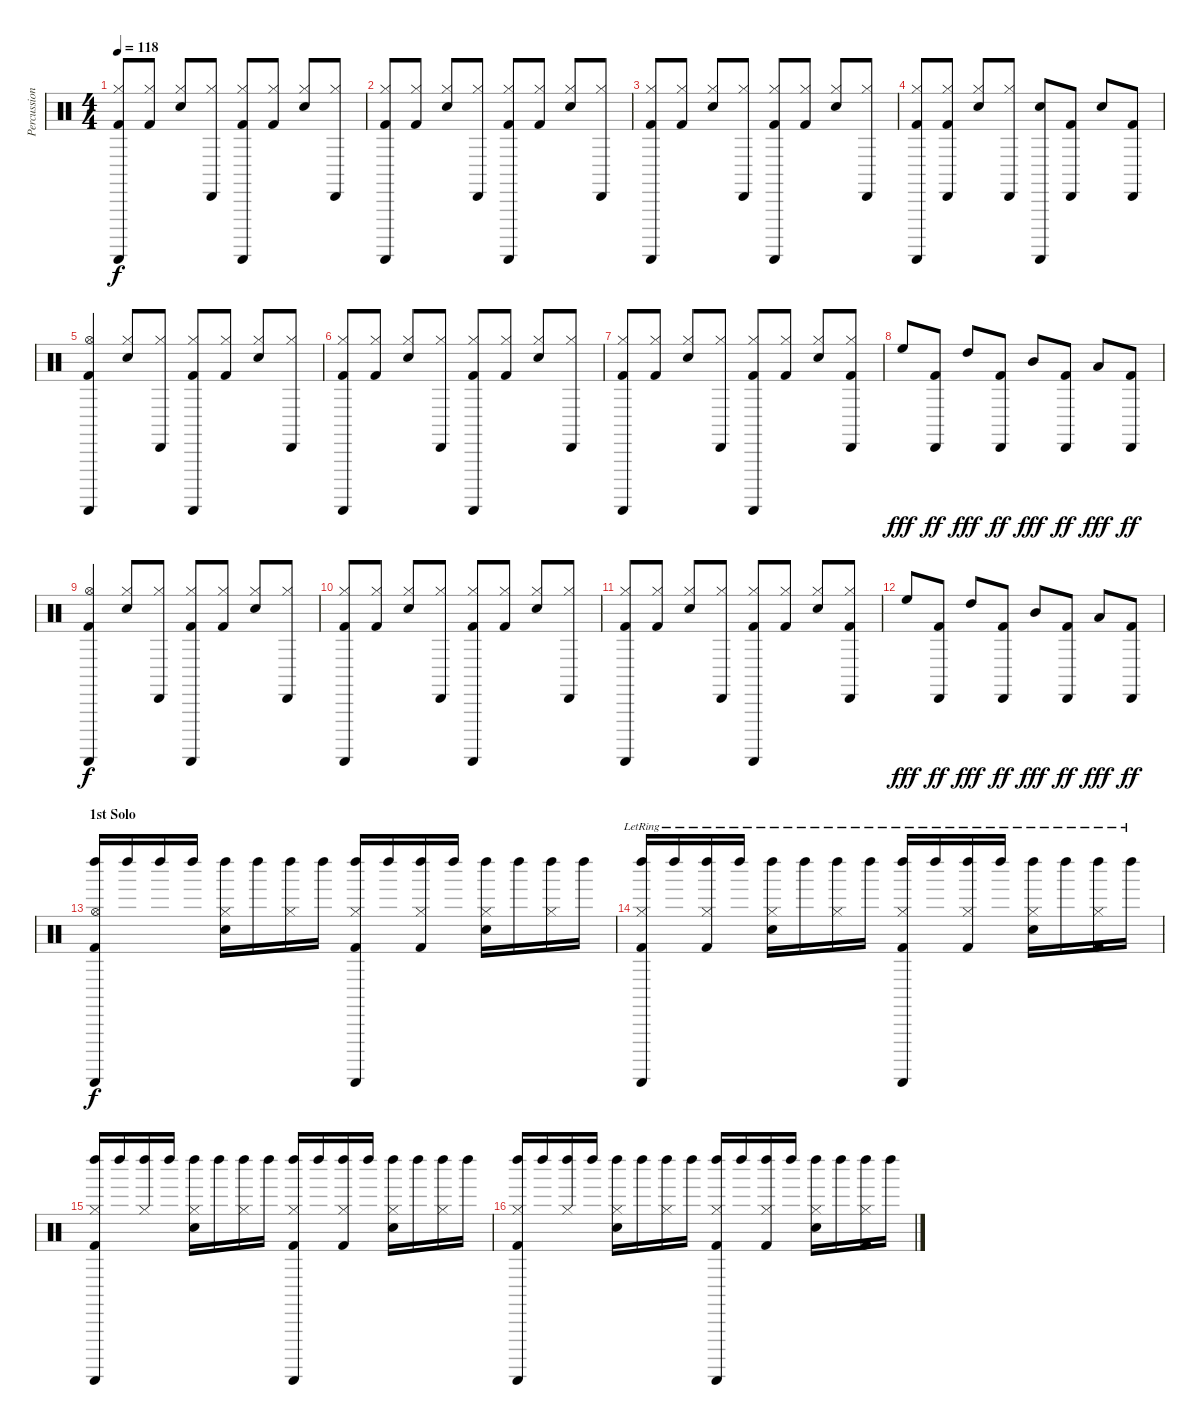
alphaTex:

\track ("Percussions" "Percussion") {instrument percussion}
\staff {score}
\articulation defaults
\ts (4 4)
\tempo 118
\clef neutral
\ks c
("Guiro (scrap-return)" "Hi-Hat (closed)" "Kick (hit) 2").8{dy f} ("Hi-Hat (closed)" "Kick (hit) 2").8 ("Hi-Hat (closed)" "Snare (hit) 2").8 ("Cabasa (hit)" "Hi-Hat (closed)").8 ("Guiro (scrap-return)" "Hi-Hat (closed)" "Kick (hit) 2").8 ("Hi-Hat (closed)" "Kick (hit) 2").8 ("Hi-Hat (closed)" "Snare (hit) 2").8 ("Cabasa (hit)" "Hi-Hat (closed)").8 |
("Guiro (scrap-return)" "Hi-Hat (closed)" "Kick (hit) 2").8 ("Hi-Hat (closed)" "Kick (hit) 2").8 ("Hi-Hat (closed)" "Snare (hit) 2").8 ("Cabasa (hit)" "Hi-Hat (closed)").8 ("Guiro (scrap-return)" "Hi-Hat (closed)" "Kick (hit) 2").8 ("Hi-Hat (closed)" "Kick (hit) 2").8 ("Hi-Hat (closed)" "Snare (hit) 2").8 ("Cabasa (hit)" "Hi-Hat (closed)").8 |
("Guiro (scrap-return)" "Hi-Hat (closed)" "Kick (hit) 2").8 ("Hi-Hat (closed)" "Kick (hit) 2").8 ("Hi-Hat (closed)" "Snare (hit) 2").8 ("Cabasa (hit)" "Hi-Hat (closed)").8 ("Guiro (scrap-return)" "Hi-Hat (closed)" "Kick (hit) 2").8 ("Hi-Hat (closed)" "Kick (hit) 2").8 ("Hi-Hat (closed)" "Snare (hit) 2").8 ("Cabasa (hit)" "Hi-Hat (closed)").8 |
("Guiro (scrap-return)" "Hi-Hat (closed)" "Kick (hit) 2").8 ("Cabasa (hit)" "Hi-Hat (closed)" "Kick (hit) 2").8 ("Hi-Hat (closed)" "Snare (hit) 2").8 ("Cabasa (hit)" "Hi-Hat (closed)").8 ("Guiro (scrap-return)" "Snare (hit) 2").8 ("Cabasa (hit)" "Kick (hit) 2").8 "Snare (hit) 2".8 ("Cabasa (hit)" "Kick (hit) 2").8 |
("Guiro (scrap-return)" "Hi-Hat (open)" "Kick (hit) 2").4 ("Hi-Hat (closed)" "Snare (hit) 2").8 ("Cabasa (hit)" "Hi-Hat (closed)").8 ("Guiro (scrap-return)" "Hi-Hat (closed)" "Kick (hit) 2").8 ("Hi-Hat (closed)" "Kick (hit) 2").8 ("Hi-Hat (closed)" "Snare (hit) 2").8 ("Cabasa (hit)" "Hi-Hat (closed)").8 |
("Guiro (scrap-return)" "Hi-Hat (closed)" "Kick (hit) 2").8 ("Hi-Hat (closed)" "Kick (hit) 2").8 ("Hi-Hat (closed)" "Snare (hit) 2").8 ("Cabasa (hit)" "Hi-Hat (closed)").8 ("Guiro (scrap-return)" "Hi-Hat (closed)" "Kick (hit) 2").8 ("Hi-Hat (closed)" "Kick (hit) 2").8 ("Hi-Hat (closed)" "Snare (hit) 2").8 ("Cabasa (hit)" "Hi-Hat (closed)").8 |
("Guiro (scrap-return)" "Hi-Hat (closed)" "Kick (hit) 2").8 ("Hi-Hat (closed)" "Kick (hit) 2").8 ("Hi-Hat (closed)" "Snare (hit) 2").8 ("Cabasa (hit)" "Hi-Hat (closed)").8 ("Guiro (scrap-return)" "Hi-Hat (closed)" "Kick (hit) 2").8 ("Hi-Hat (closed)" "Kick (hit) 2").8 ("Hi-Hat (closed)" "Snare (hit) 2").8 ("Cabasa (hit)" "Hi-Hat (closed)" "Kick (hit) 2").8 |
"High Floor Tom (hit)".8{dy fff} ("Cabasa (hit)" "Kick (hit) 2").8{dy ff} "High Tom (hit)".8{dy fff} ("Cabasa (hit)" "Kick (hit) 2").8{dy ff} "Mid Tom (hit)".8{dy fff} ("Cabasa (hit)" "Kick (hit) 2").8{dy ff} "Low Tom (hit)".8{dy fff} ("Cabasa (hit)" "Kick (hit) 2").8{dy ff} |
("Guiro (scrap-return)" "Hi-Hat (open)" "Kick (hit) 2").4{dy f} ("Hi-Hat (closed)" "Snare (hit) 2").8 ("Cabasa (hit)" "Hi-Hat (closed)").8 ("Guiro (scrap-return)" "Hi-Hat (closed)" "Kick (hit) 2").8 ("Hi-Hat (closed)" "Kick (hit) 2").8 ("Hi-Hat (closed)" "Snare (hit) 2").8 ("Cabasa (hit)" "Hi-Hat (closed)").8 |
("Guiro (scrap-return)" "Hi-Hat (closed)" "Kick (hit) 2").8 ("Hi-Hat (closed)" "Kick (hit) 2").8 ("Hi-Hat (closed)" "Snare (hit) 2").8 ("Cabasa (hit)" "Hi-Hat (closed)").8 ("Guiro (scrap-return)" "Hi-Hat (closed)" "Kick (hit) 2").8 ("Hi-Hat (closed)" "Kick (hit) 2").8 ("Hi-Hat (closed)" "Snare (hit) 2").8 ("Cabasa (hit)" "Hi-Hat (closed)").8 |
("Guiro (scrap-return)" "Hi-Hat (closed)" "Kick (hit) 2").8 ("Hi-Hat (closed)" "Kick (hit) 2").8 ("Hi-Hat (closed)" "Snare (hit) 2").8 ("Cabasa (hit)" "Hi-Hat (closed)").8 ("Guiro (scrap-return)" "Hi-Hat (closed)" "Kick (hit) 2").8 ("Hi-Hat (closed)" "Kick (hit) 2").8 ("Hi-Hat (closed)" "Snare (hit) 2").8 ("Cabasa (hit)" "Hi-Hat (closed)" "Kick (hit) 2").8 |
"High Floor Tom (hit)".8{dy fff} ("Cabasa (hit)" "Kick (hit) 2").8{dy ff} "High Tom (hit)".8{dy fff} ("Cabasa (hit)" "Kick (hit) 2").8{dy ff} "Mid Tom (hit)".8{dy fff} ("Cabasa (hit)" "Kick (hit) 2").8{dy ff} "Low Tom (hit)".8{dy fff} ("Cabasa (hit)" "Kick (hit) 2").8{dy ff} |
\section ("" "1st Solo")
("Guiro (scrap-return)" "Left Maraca (hit)" "Hi-Hat (open)" "Kick (hit) 2").16{dy f} "Left Maraca (hit)".16 "Left Maraca (hit)".16 "Left Maraca (hit)".16 ("Left Maraca (hit)" "Hi-Hat (closed)" "Snare (hit) 2").16 "Left Maraca (hit)".16 ("Left Maraca (hit)" "Hi-Hat (closed)").16 "Left Maraca (hit)".16 ("Guiro (scrap-return)" "Left Maraca (hit)" "Hi-Hat (closed)" "Kick (hit) 2").16 "Left Maraca (hit)".16 ("Left Maraca (hit)" "Hi-Hat (closed)" "Kick (hit) 2").16 "Left Maraca (hit)".16 ("Left Maraca (hit)" "Hi-Hat (closed)" "Snare (hit) 2").16 "Left Maraca (hit)".16 ("Left Maraca (hit)" "Hi-Hat (closed)").16 "Left Maraca (hit)".16 |
("Guiro (scrap-return)"{lr} "Left Maraca (hit)"{lr} "Hi-Hat (closed)"{lr} "Kick (hit) 2"{lr}).16 "Left Maraca (hit)"{lr}.16 ("Left Maraca (hit)"{lr} "Hi-Hat (closed)"{lr} "Kick (hit) 2"{lr}).16 "Left Maraca (hit)"{lr}.16 ("Left Maraca (hit)"{lr} "Hi-Hat (closed)"{lr} "Snare (hit) 2"{lr}).16 "Left Maraca (hit)"{lr}.16 ("Left Maraca (hit)"{lr} "Hi-Hat (closed)"{lr}).16 "Left Maraca (hit)"{lr}.16 ("Guiro (scrap-return)"{lr} "Left Maraca (hit)"{lr} "Hi-Hat (closed)"{lr} "Kick (hit) 2"{lr}).16 "Left Maraca (hit)"{lr}.16 ("Left Maraca (hit)"{lr} "Hi-Hat (closed)"{lr} "Kick (hit) 2"{lr}).16 "Left Maraca (hit)"{lr}.16 ("Left Maraca (hit)"{lr} "Hi-Hat (closed)"{lr} "Snare (hit) 2"{lr}).16 "Left Maraca (hit)"{lr}.16 ("Left Maraca (hit)"{lr} "Hi-Hat (closed)"{lr} "Kick (hit) 2"{lr}).16 "Left Maraca (hit)"{lr}.16 |
("Guiro (scrap-return)" "Left Maraca (hit)" "Hi-Hat (closed)" "Kick (hit) 2").16 "Left Maraca (hit)".16 ("Left Maraca (hit)" "Hi-Hat (closed)").16 "Left Maraca (hit)".16 ("Left Maraca (hit)" "Hi-Hat (closed)" "Snare (hit) 2").16 "Left Maraca (hit)".16 ("Left Maraca (hit)" "Hi-Hat (closed)").16 "Left Maraca (hit)".16 ("Guiro (scrap-return)" "Left Maraca (hit)" "Hi-Hat (closed)" "Kick (hit) 2").16 "Left Maraca (hit)".16 ("Left Maraca (hit)" "Hi-Hat (closed)" "Kick (hit) 2").16 "Left Maraca (hit)".16 ("Left Maraca (hit)" "Hi-Hat (closed)" "Snare (hit) 2").16 "Left Maraca (hit)".16 ("Left Maraca (hit)" "Hi-Hat (closed)").16 "Left Maraca (hit)".16 |
("Guiro (scrap-return)" "Left Maraca (hit)" "Hi-Hat (closed)" "Kick (hit) 2").16 "Left Maraca (hit)".16 ("Left Maraca (hit)" "Hi-Hat (closed)").16 "Left Maraca (hit)".16 ("Left Maraca (hit)" "Hi-Hat (closed)" "Snare (hit) 2").16 "Left Maraca (hit)".16 ("Left Maraca (hit)" "Hi-Hat (closed)").16 "Left Maraca (hit)".16 ("Guiro (scrap-return)" "Left Maraca (hit)" "Hi-Hat (closed)" "Kick (hit) 2").16 "Left Maraca (hit)".16 ("Left Maraca (hit)" "Hi-Hat (closed)" "Kick (hit) 2").16 "Left Maraca (hit)".16 ("Left Maraca (hit)" "Hi-Hat (closed)" "Snare (hit) 2").16 "Left Maraca (hit)".16 ("Left Maraca (hit)" "Hi-Hat (closed)" "Kick (hit) 2").16 "Left Maraca (hit)".16
